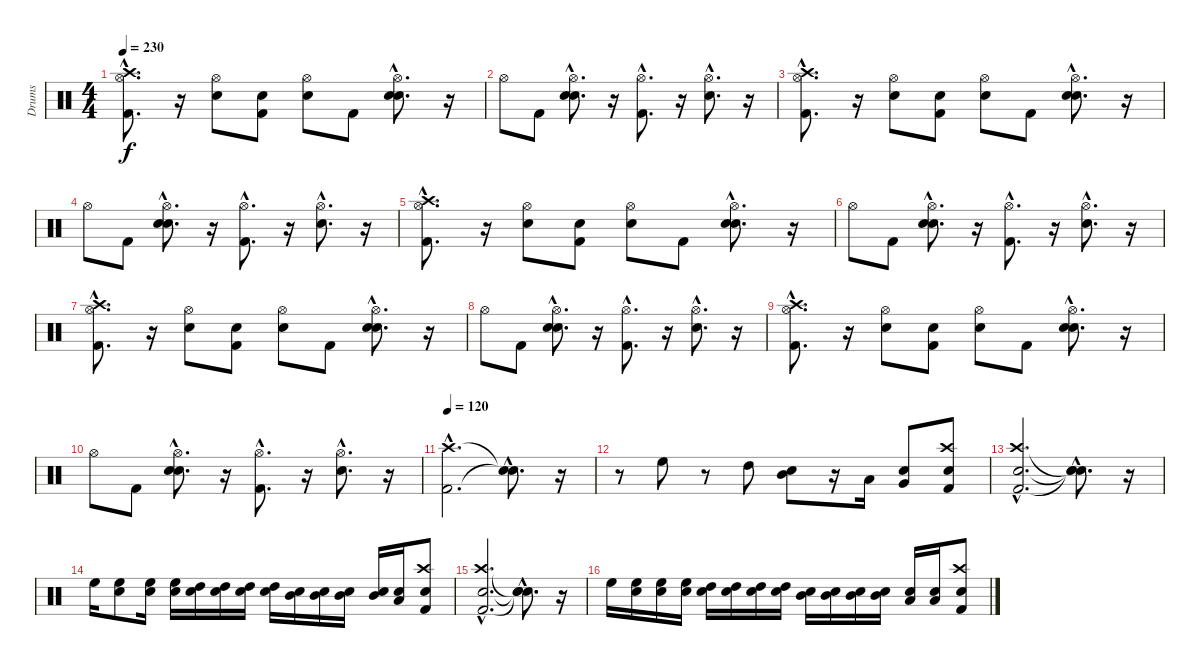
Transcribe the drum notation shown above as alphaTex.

\track ("Drums" "Drums") {instrument percussion}
\staff {score}
\articulation defaults
\ts (4 4)
\tempo 230
\clef neutral
\ks c
("Kick (hit) 2"{hac} "Hi-Hat (open)"{hac} "Crash high (hit)"{hac}).8{d dy f} r.16 ("Snare (hit) 2" "Hi-Hat (open)").8 ("Snare (hit)" "Kick (hit) 2").8 ("Snare (hit)" "Hi-Hat (open)").8 "Kick (hit) 2".8 ("Snare (hit)"{hac} "Snare (hit) 2"{hac} "Hi-Hat (open)"{hac}).8{d} r.16 |
"Hi-Hat (open)".8 "Kick (hit) 2".8 ("Snare (hit)"{hac} "Snare (hit) 2"{hac} "Hi-Hat (open)"{hac}).8{d} r.16 ("Kick (hit) 2"{hac} "Hi-Hat (open)"{hac}).8{d} r.16 ("Snare (hit) 2"{hac} "Hi-Hat (open)"{hac}).8{d} r.16 |
("Kick (hit) 2"{hac} "Hi-Hat (open)"{hac} "Crash high (hit)"{hac}).8{d} r.16 ("Snare (hit) 2" "Hi-Hat (open)").8 ("Snare (hit)" "Kick (hit) 2").8 ("Snare (hit)" "Hi-Hat (open)").8 "Kick (hit) 2".8 ("Snare (hit)"{hac} "Snare (hit) 2"{hac} "Hi-Hat (open)"{hac}).8{d} r.16 |
"Hi-Hat (open)".8 "Kick (hit) 2".8 ("Snare (hit)"{hac} "Snare (hit) 2"{hac} "Hi-Hat (open)"{hac}).8{d} r.16 ("Kick (hit) 2"{hac} "Hi-Hat (open)"{hac}).8{d} r.16 ("Snare (hit) 2"{hac} "Hi-Hat (open)"{hac}).8{d} r.16 |
("Kick (hit) 2"{hac} "Hi-Hat (open)"{hac} "Crash high (hit)"{hac}).8{d} r.16 ("Snare (hit) 2" "Hi-Hat (open)").8 ("Snare (hit)" "Kick (hit) 2").8 ("Snare (hit)" "Hi-Hat (open)").8 "Kick (hit) 2".8 ("Snare (hit)"{hac} "Snare (hit) 2"{hac} "Hi-Hat (open)"{hac}).8{d} r.16 |
"Hi-Hat (open)".8 "Kick (hit) 2".8 ("Snare (hit)"{hac} "Snare (hit) 2"{hac} "Hi-Hat (open)"{hac}).8{d} r.16 ("Kick (hit) 2"{hac} "Hi-Hat (open)"{hac}).8{d} r.16 ("Snare (hit) 2"{hac} "Hi-Hat (open)"{hac}).8{d} r.16 |
("Kick (hit) 2"{hac} "Hi-Hat (open)"{hac} "Crash high (hit)"{hac}).8{d} r.16 ("Snare (hit) 2" "Hi-Hat (open)").8 ("Snare (hit)" "Kick (hit) 2").8 ("Snare (hit)" "Hi-Hat (open)").8 "Kick (hit) 2".8 ("Snare (hit)"{hac} "Snare (hit) 2"{hac} "Hi-Hat (open)"{hac}).8{d} r.16 |
"Hi-Hat (open)".8 "Kick (hit) 2".8 ("Snare (hit)"{hac} "Snare (hit) 2"{hac} "Hi-Hat (open)"{hac}).8{d} r.16 ("Kick (hit) 2"{hac} "Hi-Hat (open)"{hac}).8{d} r.16 ("Snare (hit) 2"{hac} "Hi-Hat (open)"{hac}).8{d} r.16 |
("Kick (hit) 2"{hac} "Hi-Hat (open)"{hac} "Crash high (hit)"{hac}).8{d} r.16 ("Snare (hit) 2" "Hi-Hat (open)").8 ("Snare (hit)" "Kick (hit) 2").8 ("Snare (hit)" "Hi-Hat (open)").8 "Kick (hit) 2".8 ("Snare (hit)"{hac} "Snare (hit) 2"{hac} "Hi-Hat (open)"{hac}).8{d} r.16 |
"Hi-Hat (open)".8 "Kick (hit) 2".8 ("Snare (hit)"{hac} "Snare (hit) 2"{hac} "Hi-Hat (open)"{hac}).8{d} r.16 ("Kick (hit) 2"{hac} "Hi-Hat (open)"{hac}).8{d} r.16 ("Snare (hit) 2"{hac} "Hi-Hat (open)"{hac}).8{d} r.16 |
\tempo 120
("Kick (hit) 2"{hac} "Crash high (hit)"{hac}).2{d} ("Snare (hit)"{hac t} "Snare (hit)"{hac t}).8{d} r.16 |
r.8 "High Floor Tom (hit)".8 r.8 "High Tom (hit)".8 ("Snare (hit)" "Mid Tom (hit)").8 r.16 "Low Tom (hit)".16 ("Snare (hit)" "Very Low Tom (hit)").8 ("Snare (hit)" "Kick (hit) 2" "Crash high (hit)").8 |
("Snare (hit)"{hac} "Kick (hit) 2"{hac} "Crash high (hit)"{hac}).2{d} ("Snare (hit)"{hac t} "Snare (hit)"{hac t} "Snare (hit)"{hac t}).8{d} r.16 |
"High Floor Tom (hit)".16 ("Snare (hit)" "High Floor Tom (hit)").8 ("Snare (hit)" "High Floor Tom (hit)").16 ("Snare (hit)" "High Floor Tom (hit)").16 ("Snare (hit)" "High Tom (hit)").16 ("Snare (hit)" "High Tom (hit)").16 ("Snare (hit)" "High Tom (hit)").16 ("Snare (hit)" "High Tom (hit)").16 ("Snare (hit)" "Mid Tom (hit)").16 ("Snare (hit)" "Mid Tom (hit)").16 ("Snare (hit)" "Mid Tom (hit)").16 ("Snare (hit)" "Mid Tom (hit)").16 ("Snare (hit)" "Low Tom (hit)").16 ("Snare (hit)" "Kick (hit) 2" "Crash high (hit)").8 |
("Snare (hit)"{hac} "Kick (hit) 2"{hac} "Crash high (hit)"{hac}).2{d} ("Snare (hit)"{hac t} "Snare (hit)"{hac t} "Snare (hit)"{hac t}).8{d} r.16 |
"High Floor Tom (hit)".16 ("Snare (hit)" "High Floor Tom (hit)").16 ("Snare (hit)" "High Floor Tom (hit)").16 ("Snare (hit)" "High Floor Tom (hit)").16 ("Snare (hit)" "High Tom (hit)").16 ("Snare (hit)" "High Tom (hit)").16 ("Snare (hit)" "High Tom (hit)").16 ("Snare (hit)" "High Tom (hit)").16 ("Snare (hit)" "Mid Tom (hit)").16 ("Snare (hit)" "Mid Tom (hit)").16 ("Snare (hit)" "Mid Tom (hit)").16 ("Snare (hit)" "Mid Tom (hit)").16 ("Snare (hit)" "Low Tom (hit)").16 ("Snare (hit)" "Low Tom (hit)").16 ("Snare (hit)" "Kick (hit) 2" "Crash high (hit)").8
